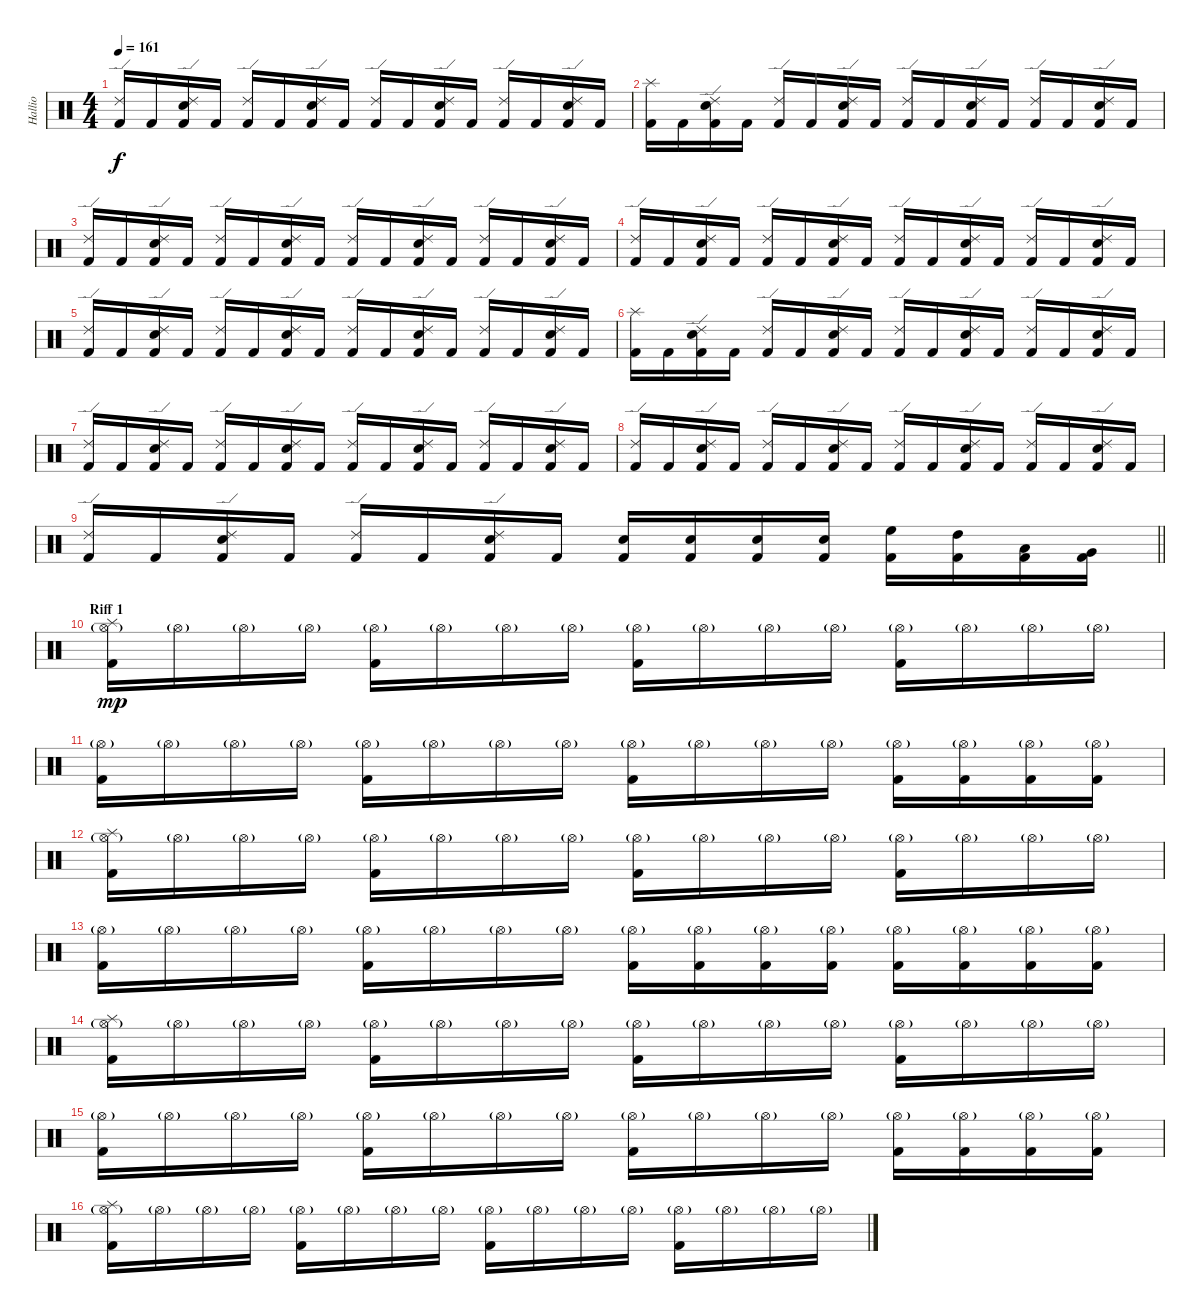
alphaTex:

\track ("Hallio" "Hallio") {instrument percussion}
\staff {score}
\articulation defaults
\ts (4 4)
\tempo 161
\clef neutral
\ks c
("Kick (hit) 2" "Ride (edge) 2").16{dy f} "Kick (hit) 2".16 ("Kick (hit) 2" "Snare (hit) 2" "Ride (edge) 2").16 "Kick (hit) 2".16 ("Kick (hit) 2" "Ride (edge) 2").16 "Kick (hit) 2".16 ("Kick (hit) 2" "Snare (hit) 2" "Ride (edge) 2").16 "Kick (hit) 2".16 ("Kick (hit) 2" "Ride (edge) 2").16 "Kick (hit) 2".16 ("Kick (hit) 2" "Snare (hit) 2" "Ride (edge) 2").16 "Kick (hit) 2".16 ("Kick (hit) 2" "Ride (edge) 2").16 "Kick (hit) 2".16 ("Kick (hit) 2" "Snare (hit) 2" "Ride (edge) 2").16 "Kick (hit) 2".16 |
("Kick (hit) 2" "Splash (hit)").16 "Kick (hit) 2".16 ("Kick (hit) 2" "Snare (hit) 2" "Ride (edge) 2").16 "Kick (hit) 2".16 ("Kick (hit) 2" "Ride (edge) 2").16 "Kick (hit) 2".16 ("Kick (hit) 2" "Snare (hit) 2" "Ride (edge) 2").16 "Kick (hit) 2".16 ("Kick (hit) 2" "Ride (edge) 2").16 "Kick (hit) 2".16 ("Kick (hit) 2" "Snare (hit) 2" "Ride (edge) 2").16 "Kick (hit) 2".16 ("Kick (hit) 2" "Ride (edge) 2").16 "Kick (hit) 2".16 ("Kick (hit) 2" "Snare (hit) 2" "Ride (edge) 2").16 "Kick (hit) 2".16 |
("Kick (hit) 2" "Ride (edge) 2").16 "Kick (hit) 2".16 ("Kick (hit) 2" "Snare (hit) 2" "Ride (edge) 2").16 "Kick (hit) 2".16 ("Kick (hit) 2" "Ride (edge) 2").16 "Kick (hit) 2".16 ("Kick (hit) 2" "Snare (hit) 2" "Ride (edge) 2").16 "Kick (hit) 2".16 ("Kick (hit) 2" "Ride (edge) 2").16 "Kick (hit) 2".16 ("Kick (hit) 2" "Snare (hit) 2" "Ride (edge) 2").16 "Kick (hit) 2".16 ("Kick (hit) 2" "Ride (edge) 2").16 "Kick (hit) 2".16 ("Kick (hit) 2" "Snare (hit) 2" "Ride (edge) 2").16 "Kick (hit) 2".16 |
("Kick (hit) 2" "Ride (edge) 2").16 "Kick (hit) 2".16 ("Kick (hit) 2" "Snare (hit) 2" "Ride (edge) 2").16 "Kick (hit) 2".16 ("Kick (hit) 2" "Ride (edge) 2").16 "Kick (hit) 2".16 ("Kick (hit) 2" "Snare (hit) 2" "Ride (edge) 2").16 "Kick (hit) 2".16 ("Kick (hit) 2" "Ride (edge) 2").16 "Kick (hit) 2".16 ("Kick (hit) 2" "Snare (hit) 2" "Ride (edge) 2").16 "Kick (hit) 2".16 ("Kick (hit) 2" "Ride (edge) 2").16 "Kick (hit) 2".16 ("Kick (hit) 2" "Snare (hit) 2" "Ride (edge) 2").16 "Kick (hit) 2".16 |
("Kick (hit) 2" "Ride (edge) 2").16 "Kick (hit) 2".16 ("Kick (hit) 2" "Snare (hit) 2" "Ride (edge) 2").16 "Kick (hit) 2".16 ("Kick (hit) 2" "Ride (edge) 2").16 "Kick (hit) 2".16 ("Kick (hit) 2" "Snare (hit) 2" "Ride (edge) 2").16 "Kick (hit) 2".16 ("Kick (hit) 2" "Ride (edge) 2").16 "Kick (hit) 2".16 ("Kick (hit) 2" "Snare (hit) 2" "Ride (edge) 2").16 "Kick (hit) 2".16 ("Kick (hit) 2" "Ride (edge) 2").16 "Kick (hit) 2".16 ("Kick (hit) 2" "Snare (hit) 2" "Ride (edge) 2").16 "Kick (hit) 2".16 |
("Kick (hit) 2" "Splash (hit)").16 "Kick (hit) 2".16 ("Kick (hit) 2" "Snare (hit) 2" "Ride (edge) 2").16 "Kick (hit) 2".16 ("Kick (hit) 2" "Ride (edge) 2").16 "Kick (hit) 2".16 ("Kick (hit) 2" "Snare (hit) 2" "Ride (edge) 2").16 "Kick (hit) 2".16 ("Kick (hit) 2" "Ride (edge) 2").16 "Kick (hit) 2".16 ("Kick (hit) 2" "Snare (hit) 2" "Ride (edge) 2").16 "Kick (hit) 2".16 ("Kick (hit) 2" "Ride (edge) 2").16 "Kick (hit) 2".16 ("Kick (hit) 2" "Snare (hit) 2" "Ride (edge) 2").16 "Kick (hit) 2".16 |
("Kick (hit) 2" "Ride (edge) 2").16 "Kick (hit) 2".16 ("Kick (hit) 2" "Snare (hit) 2" "Ride (edge) 2").16 "Kick (hit) 2".16 ("Kick (hit) 2" "Ride (edge) 2").16 "Kick (hit) 2".16 ("Kick (hit) 2" "Snare (hit) 2" "Ride (edge) 2").16 "Kick (hit) 2".16 ("Kick (hit) 2" "Ride (edge) 2").16 "Kick (hit) 2".16 ("Kick (hit) 2" "Snare (hit) 2" "Ride (edge) 2").16 "Kick (hit) 2".16 ("Kick (hit) 2" "Ride (edge) 2").16 "Kick (hit) 2".16 ("Kick (hit) 2" "Snare (hit) 2" "Ride (edge) 2").16 "Kick (hit) 2".16 |
("Kick (hit) 2" "Ride (edge) 2").16 "Kick (hit) 2".16 ("Kick (hit) 2" "Snare (hit) 2" "Ride (edge) 2").16 "Kick (hit) 2".16 ("Kick (hit) 2" "Ride (edge) 2").16 "Kick (hit) 2".16 ("Kick (hit) 2" "Snare (hit) 2" "Ride (edge) 2").16 "Kick (hit) 2".16 ("Kick (hit) 2" "Ride (edge) 2").16 "Kick (hit) 2".16 ("Kick (hit) 2" "Snare (hit) 2" "Ride (edge) 2").16 "Kick (hit) 2".16 ("Kick (hit) 2" "Ride (edge) 2").16 "Kick (hit) 2".16 ("Kick (hit) 2" "Snare (hit) 2" "Ride (edge) 2").16 "Kick (hit) 2".16 |
\barLineRight lightlight
("Kick (hit) 2" "Ride (edge) 2").16 "Kick (hit) 2".16 ("Kick (hit) 2" "Snare (hit) 2" "Ride (edge) 2").16 "Kick (hit) 2".16 ("Kick (hit) 2" "Ride (edge) 2").16 "Kick (hit) 2".16 ("Kick (hit) 2" "Snare (hit) 2" "Ride (edge) 2").16 "Kick (hit) 2".16 ("Kick (hit) 2" "Snare (hit) 2").16 ("Kick (hit) 2" "Snare (hit) 2").16 ("Kick (hit) 2" "Snare (hit) 2").16 ("Kick (hit) 2" "Snare (hit) 2").16 ("Kick (hit) 2" "High Floor Tom (hit)").16 ("Kick (hit) 2" "High Tom (hit)").16 ("Kick (hit) 2" "Low Tom (hit)").16 ("Kick (hit) 2" "Very Low Tom (hit)").16 |
\section ("" "Riff 1")
("Hi-Hat (open)"{g} "Kick (hit) 2" "Splash (hit)").16{dy mp} "Hi-Hat (open)"{g}.16 "Hi-Hat (open)"{g}.16 "Hi-Hat (open)"{g}.16 ("Hi-Hat (open)"{g} "Kick (hit) 2").16 "Hi-Hat (open)"{g}.16 "Hi-Hat (open)"{g}.16 "Hi-Hat (open)"{g}.16 ("Hi-Hat (open)"{g} "Kick (hit) 2").16 "Hi-Hat (open)"{g}.16 "Hi-Hat (open)"{g}.16 "Hi-Hat (open)"{g}.16 ("Hi-Hat (open)"{g} "Kick (hit) 2").16 "Hi-Hat (open)"{g}.16 "Hi-Hat (open)"{g}.16 "Hi-Hat (open)"{g}.16 |
("Hi-Hat (open)"{g} "Kick (hit) 2").16 "Hi-Hat (open)"{g}.16 "Hi-Hat (open)"{g}.16 "Hi-Hat (open)"{g}.16 ("Hi-Hat (open)"{g} "Kick (hit) 2").16 "Hi-Hat (open)"{g}.16 "Hi-Hat (open)"{g}.16 "Hi-Hat (open)"{g}.16 ("Hi-Hat (open)"{g} "Kick (hit) 2").16 "Hi-Hat (open)"{g}.16 "Hi-Hat (open)"{g}.16 "Hi-Hat (open)"{g}.16 ("Hi-Hat (open)"{g} "Kick (hit) 2").16 ("Hi-Hat (open)"{g} "Kick (hit) 2").16 ("Hi-Hat (open)"{g} "Kick (hit) 2").16 ("Hi-Hat (open)"{g} "Kick (hit) 2").16 |
("Hi-Hat (open)"{g} "Kick (hit) 2" "Splash (hit)").16 "Hi-Hat (open)"{g}.16 "Hi-Hat (open)"{g}.16 "Hi-Hat (open)"{g}.16 ("Hi-Hat (open)"{g} "Kick (hit) 2").16 "Hi-Hat (open)"{g}.16 "Hi-Hat (open)"{g}.16 "Hi-Hat (open)"{g}.16 ("Hi-Hat (open)"{g} "Kick (hit) 2").16 "Hi-Hat (open)"{g}.16 "Hi-Hat (open)"{g}.16 "Hi-Hat (open)"{g}.16 ("Hi-Hat (open)"{g} "Kick (hit) 2").16 "Hi-Hat (open)"{g}.16 "Hi-Hat (open)"{g}.16 "Hi-Hat (open)"{g}.16 |
("Hi-Hat (open)"{g} "Kick (hit) 2").16 "Hi-Hat (open)"{g}.16 "Hi-Hat (open)"{g}.16 "Hi-Hat (open)"{g}.16 ("Hi-Hat (open)"{g} "Kick (hit) 2").16 "Hi-Hat (open)"{g}.16 "Hi-Hat (open)"{g}.16 "Hi-Hat (open)"{g}.16 ("Hi-Hat (open)"{g} "Kick (hit) 2").16 ("Hi-Hat (open)"{g} "Kick (hit) 2").16 ("Hi-Hat (open)"{g} "Kick (hit) 2").16 ("Hi-Hat (open)"{g} "Kick (hit) 2").16 ("Hi-Hat (open)"{g} "Kick (hit) 2").16 ("Hi-Hat (open)"{g} "Kick (hit) 2").16 ("Hi-Hat (open)"{g} "Kick (hit) 2").16 ("Hi-Hat (open)"{g} "Kick (hit) 2").16 |
("Hi-Hat (open)"{g} "Kick (hit) 2" "Splash (hit)").16 "Hi-Hat (open)"{g}.16 "Hi-Hat (open)"{g}.16 "Hi-Hat (open)"{g}.16 ("Hi-Hat (open)"{g} "Kick (hit) 2").16 "Hi-Hat (open)"{g}.16 "Hi-Hat (open)"{g}.16 "Hi-Hat (open)"{g}.16 ("Hi-Hat (open)"{g} "Kick (hit) 2").16 "Hi-Hat (open)"{g}.16 "Hi-Hat (open)"{g}.16 "Hi-Hat (open)"{g}.16 ("Hi-Hat (open)"{g} "Kick (hit) 2").16 "Hi-Hat (open)"{g}.16 "Hi-Hat (open)"{g}.16 "Hi-Hat (open)"{g}.16 |
("Hi-Hat (open)"{g} "Kick (hit) 2").16 "Hi-Hat (open)"{g}.16 "Hi-Hat (open)"{g}.16 "Hi-Hat (open)"{g}.16 ("Hi-Hat (open)"{g} "Kick (hit) 2").16 "Hi-Hat (open)"{g}.16 "Hi-Hat (open)"{g}.16 "Hi-Hat (open)"{g}.16 ("Hi-Hat (open)"{g} "Kick (hit) 2").16 "Hi-Hat (open)"{g}.16 "Hi-Hat (open)"{g}.16 "Hi-Hat (open)"{g}.16 ("Hi-Hat (open)"{g} "Kick (hit) 2").16 ("Hi-Hat (open)"{g} "Kick (hit) 2").16 ("Hi-Hat (open)"{g} "Kick (hit) 2").16 ("Hi-Hat (open)"{g} "Kick (hit) 2").16 |
("Hi-Hat (open)"{g} "Kick (hit) 2" "Splash (hit)").16 "Hi-Hat (open)"{g}.16 "Hi-Hat (open)"{g}.16 "Hi-Hat (open)"{g}.16 ("Hi-Hat (open)"{g} "Kick (hit) 2").16 "Hi-Hat (open)"{g}.16 "Hi-Hat (open)"{g}.16 "Hi-Hat (open)"{g}.16 ("Hi-Hat (open)"{g} "Kick (hit) 2").16 "Hi-Hat (open)"{g}.16 "Hi-Hat (open)"{g}.16 "Hi-Hat (open)"{g}.16 ("Hi-Hat (open)"{g} "Kick (hit) 2").16 "Hi-Hat (open)"{g}.16 "Hi-Hat (open)"{g}.16 "Hi-Hat (open)"{g}.16
